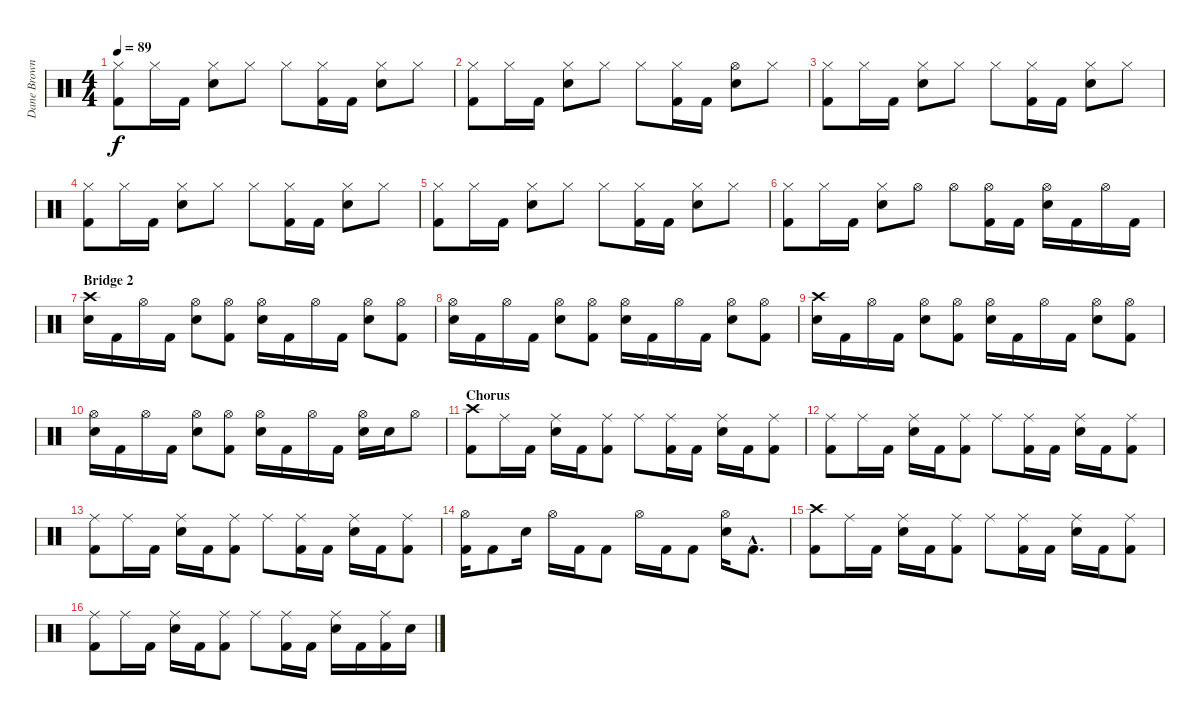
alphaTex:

\track ("Dane Brown (drums)" "Dane Brown") {instrument percussion}
\staff {score}
\articulation defaults
\ts (4 4)
\tempo 89
\clef neutral
\ks c
("Hi-Hat (closed)" "Kick (hit) 2").8{dy f} "Hi-Hat (closed)".16 "Kick (hit) 2".16 ("Hi-Hat (closed)" "Electric Snare (hit)").8 "Hi-Hat (closed)".8 "Hi-Hat (closed)".8 ("Hi-Hat (closed)" "Kick (hit) 2").16 "Kick (hit) 2".16 ("Hi-Hat (closed)" "Electric Snare (hit)").8 "Hi-Hat (closed)".8 |
("Hi-Hat (closed)" "Kick (hit) 2").8 "Hi-Hat (closed)".16 "Kick (hit) 2".16 ("Hi-Hat (closed)" "Electric Snare (hit)").8 "Hi-Hat (closed)".8 "Hi-Hat (closed)".8 ("Hi-Hat (closed)" "Kick (hit) 2").16 "Kick (hit) 2".16 ("Hi-Hat (open)" "Electric Snare (hit)").8 "Hi-Hat (closed)".8 |
("Hi-Hat (closed)" "Kick (hit) 2").8 "Hi-Hat (closed)".16 "Kick (hit) 2".16 ("Hi-Hat (closed)" "Electric Snare (hit)").8 "Hi-Hat (closed)".8 "Hi-Hat (closed)".8 ("Hi-Hat (closed)" "Kick (hit) 2").16 "Kick (hit) 2".16 ("Hi-Hat (closed)" "Electric Snare (hit)").8 "Hi-Hat (closed)".8 |
("Hi-Hat (closed)" "Kick (hit) 2").8 "Hi-Hat (closed)".16 "Kick (hit) 2".16 ("Hi-Hat (closed)" "Electric Snare (hit)").8 "Hi-Hat (closed)".8 "Hi-Hat (closed)".8 ("Hi-Hat (closed)" "Kick (hit) 2").16 "Kick (hit) 2".16 ("Hi-Hat (closed)" "Electric Snare (hit)").8 "Hi-Hat (closed)".8 |
("Hi-Hat (closed)" "Kick (hit) 2").8 "Hi-Hat (closed)".16 "Kick (hit) 2".16 ("Hi-Hat (closed)" "Electric Snare (hit)").8 "Hi-Hat (closed)".8 "Hi-Hat (closed)".8 ("Hi-Hat (closed)" "Kick (hit) 2").16 "Kick (hit) 2".16 ("Hi-Hat (closed)" "Electric Snare (hit)").8 "Hi-Hat (closed)".8 |
("Hi-Hat (closed)" "Kick (hit) 2").8 "Hi-Hat (closed)".16 "Kick (hit) 2".16 ("Hi-Hat (closed)" "Electric Snare (hit)").8 "Hi-Hat (open)".8 "Hi-Hat (open)".8 ("Hi-Hat (open)" "Kick (hit) 2").16 "Kick (hit) 2".16 ("Hi-Hat (open)" "Electric Snare (hit)").16 "Kick (hit) 2".16 "Hi-Hat (open)".16 "Kick (hit) 2".16 |
\section ("" "Bridge 2")
("Crash high (hit)" "Electric Snare (hit)").16 "Kick (hit) 2".16 "Hi-Hat (open)".16 "Kick (hit) 2".16 ("Hi-Hat (open)" "Electric Snare (hit)").8 ("Hi-Hat (open)" "Kick (hit) 2").8 ("Hi-Hat (open)" "Electric Snare (hit)").16 "Kick (hit) 2".16 "Hi-Hat (open)".16 "Kick (hit) 2".16 ("Hi-Hat (open)" "Electric Snare (hit)").8 ("Hi-Hat (open)" "Kick (hit) 2").8 |
("Hi-Hat (open)" "Electric Snare (hit)").16 "Kick (hit) 2".16 "Hi-Hat (open)".16 "Kick (hit) 2".16 ("Hi-Hat (open)" "Electric Snare (hit)").8 ("Hi-Hat (open)" "Kick (hit) 2").8 ("Hi-Hat (open)" "Electric Snare (hit)").16 "Kick (hit) 2".16 "Hi-Hat (open)".16 "Kick (hit) 2".16 ("Hi-Hat (open)" "Electric Snare (hit)").8 ("Hi-Hat (open)" "Kick (hit) 2").8 |
("Crash high (hit)" "Electric Snare (hit)").16 "Kick (hit) 2".16 "Hi-Hat (open)".16 "Kick (hit) 2".16 ("Hi-Hat (open)" "Electric Snare (hit)").8 ("Hi-Hat (open)" "Kick (hit) 2").8 ("Hi-Hat (open)" "Electric Snare (hit)").16 "Kick (hit) 2".16 "Hi-Hat (open)".16 "Kick (hit) 2".16 ("Hi-Hat (open)" "Electric Snare (hit)").8 ("Hi-Hat (open)" "Kick (hit) 2").8 |
("Hi-Hat (open)" "Electric Snare (hit)").16 "Kick (hit) 2".16 "Hi-Hat (open)".16 "Kick (hit) 2".16 ("Hi-Hat (open)" "Electric Snare (hit)").8 ("Hi-Hat (open)" "Kick (hit) 2").8 ("Hi-Hat (open)" "Electric Snare (hit)").16 "Kick (hit) 2".16 "Hi-Hat (open)".16 "Kick (hit) 2".16 ("Hi-Hat (open)" "Electric Snare (hit)").16 "Electric Snare (hit)".16 "Hi-Hat (open)".8 |
\section ("" "Chorus")
("Crash high (hit)" "Kick (hit) 2").8 "Ride (middle)".16 "Kick (hit) 2".16 ("Ride (middle)" "Electric Snare (hit)").16 "Kick (hit) 2".16 ("Ride (middle)" "Kick (hit) 2").8 "Ride (middle)".8 ("Ride (middle)" "Kick (hit) 2").16 "Kick (hit) 2".16 ("Ride (middle)" "Electric Snare (hit)").16 "Kick (hit) 2".16 ("Ride (middle)" "Kick (hit) 2").8 |
("Ride (middle)" "Kick (hit) 2").8 "Ride (middle)".16 "Kick (hit) 2".16 ("Ride (middle)" "Electric Snare (hit)").16 "Kick (hit) 2".16 ("Ride (middle)" "Kick (hit) 2").8 "Ride (middle)".8 ("Ride (middle)" "Kick (hit) 2").16 "Kick (hit) 2".16 ("Ride (middle)" "Electric Snare (hit)").16 "Kick (hit) 2".16 ("Ride (middle)" "Kick (hit) 2").8 |
("Ride (middle)" "Kick (hit) 2").8 "Ride (middle)".16 "Kick (hit) 2".16 ("Ride (middle)" "Electric Snare (hit)").16 "Kick (hit) 2".16 ("Ride (middle)" "Kick (hit) 2").8 "Ride (middle)".8 ("Ride (middle)" "Kick (hit) 2").16 "Kick (hit) 2".16 ("Ride (middle)" "Electric Snare (hit)").16 "Kick (hit) 2".16 ("Ride (middle)" "Kick (hit) 2").8 |
("Hi-Hat (open)" "Kick (hit) 2").16 "Kick (hit) 2".8 "Electric Snare (hit)".16 "Hi-Hat (open)".16 "Kick (hit) 2".16 "Kick (hit) 2".8 "Hi-Hat (open)".16 "Kick (hit) 2".16 "Kick (hit) 2".8 ("Hi-Hat (open)" "Electric Snare (hit)").16 "Kick (hit) 2"{hac}.8{d} |
("Crash high (hit)" "Kick (hit) 2").8 "Ride (middle)".16 "Kick (hit) 2".16 ("Ride (middle)" "Electric Snare (hit)").16 "Kick (hit) 2".16 ("Ride (middle)" "Kick (hit) 2").8 "Ride (middle)".8 ("Ride (middle)" "Kick (hit) 2").16 "Kick (hit) 2".16 ("Ride (middle)" "Electric Snare (hit)").16 "Kick (hit) 2".16 ("Ride (middle)" "Kick (hit) 2").8 |
("Ride (middle)" "Kick (hit) 2").8 "Ride (middle)".16 "Kick (hit) 2".16 ("Ride (middle)" "Electric Snare (hit)").16 "Kick (hit) 2".16 ("Ride (middle)" "Kick (hit) 2").8 "Ride (middle)".8 ("Ride (middle)" "Kick (hit) 2").16 "Kick (hit) 2".16 ("Ride (middle)" "Electric Snare (hit)").16 "Kick (hit) 2".16 ("Ride (middle)" "Kick (hit) 2").16 "Electric Snare (hit)".16
